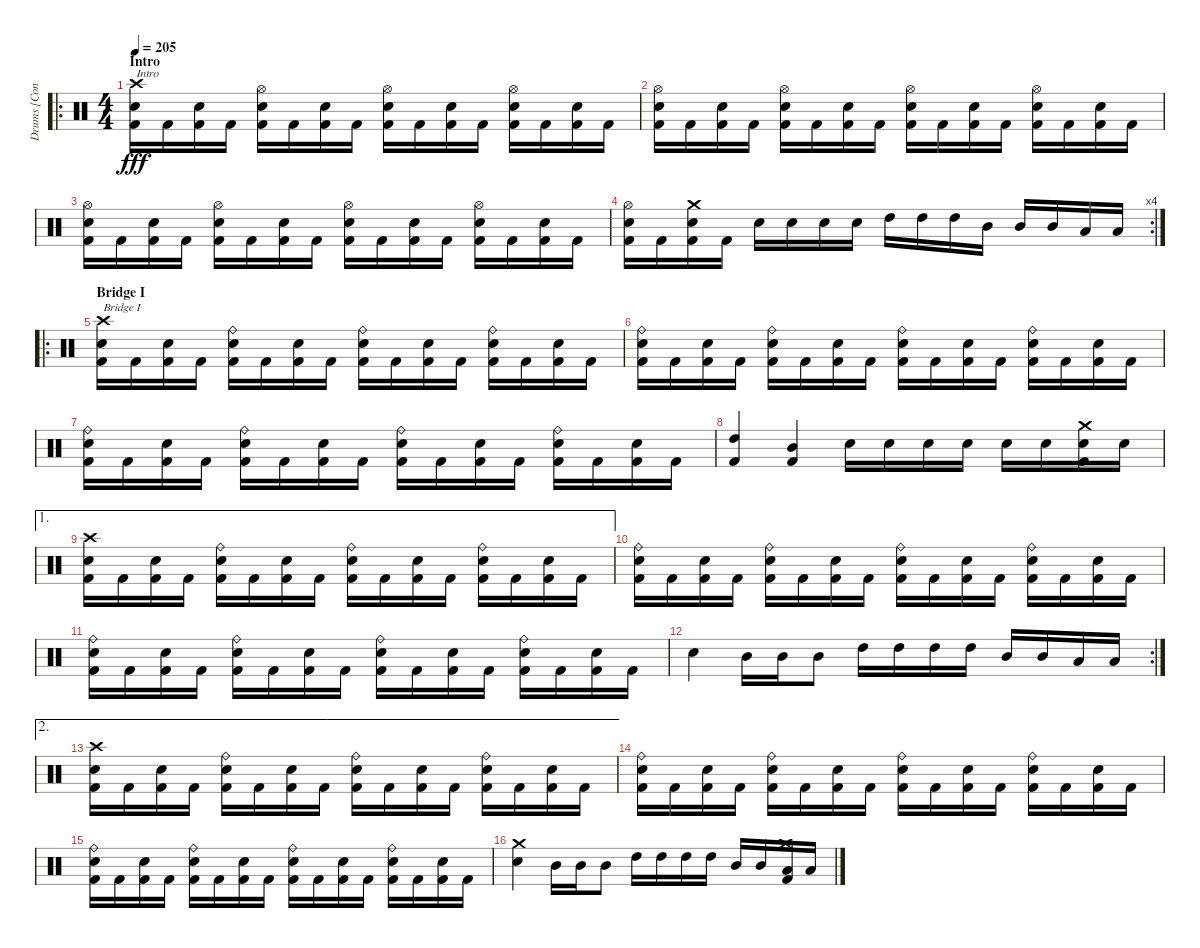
\track ("Drums [Conny Peterson]" "Drums [Con") {instrument percussion}
\staff {score}
\articulation defaults
\ro
\ts (4 4)
\section ("" "Intro")
\tempo 205
\clef neutral
\ks c
("Crash high (hit)" "Electric Snare (hit)" "Kick (hit) 2").16{txt "Intro" dy fff} "Kick (hit) 2".16 ("Electric Snare (hit)" "Kick (hit) 2").16 "Kick (hit) 2".16 ("Hi-Hat (open)" "Electric Snare (hit)" "Kick (hit) 2").16 "Kick (hit) 2".16 ("Electric Snare (hit)" "Kick (hit) 2").16 "Kick (hit) 2".16 ("Hi-Hat (open)" "Electric Snare (hit)" "Kick (hit) 2").16 "Kick (hit) 2".16 ("Electric Snare (hit)" "Kick (hit) 2").16 "Kick (hit) 2".16 ("Hi-Hat (open)" "Electric Snare (hit)" "Kick (hit) 2").16 "Kick (hit) 2".16 ("Electric Snare (hit)" "Kick (hit) 2").16 "Kick (hit) 2".16 |
("Hi-Hat (open)" "Electric Snare (hit)" "Kick (hit) 2").16 "Kick (hit) 2".16 ("Electric Snare (hit)" "Kick (hit) 2").16 "Kick (hit) 2".16 ("Hi-Hat (open)" "Electric Snare (hit)" "Kick (hit) 2").16 "Kick (hit) 2".16 ("Electric Snare (hit)" "Kick (hit) 2").16 "Kick (hit) 2".16 ("Hi-Hat (open)" "Electric Snare (hit)" "Kick (hit) 2").16 "Kick (hit) 2".16 ("Electric Snare (hit)" "Kick (hit) 2").16 "Kick (hit) 2".16 ("Hi-Hat (open)" "Electric Snare (hit)" "Kick (hit) 2").16 "Kick (hit) 2".16 ("Electric Snare (hit)" "Kick (hit) 2").16 "Kick (hit) 2".16 |
("Hi-Hat (open)" "Electric Snare (hit)" "Kick (hit) 2").16 "Kick (hit) 2".16 ("Electric Snare (hit)" "Kick (hit) 2").16 "Kick (hit) 2".16 ("Hi-Hat (open)" "Electric Snare (hit)" "Kick (hit) 2").16 "Kick (hit) 2".16 ("Electric Snare (hit)" "Kick (hit) 2").16 "Kick (hit) 2".16 ("Hi-Hat (open)" "Electric Snare (hit)" "Kick (hit) 2").16 "Kick (hit) 2".16 ("Electric Snare (hit)" "Kick (hit) 2").16 "Kick (hit) 2".16 ("Hi-Hat (open)" "Electric Snare (hit)" "Kick (hit) 2").16 "Kick (hit) 2".16 ("Electric Snare (hit)" "Kick (hit) 2").16 "Kick (hit) 2".16 |
\rc 4
("Hi-Hat (open)" "Electric Snare (hit)" "Kick (hit) 2").16 "Kick (hit) 2".16 ("Crash medium (hit)" "Electric Snare (hit)" "Kick (hit) 2").16 "Kick (hit) 2".16 "Electric Snare (hit)".16 "Electric Snare (hit)".16 "Electric Snare (hit)".16 "Electric Snare (hit)".16 "High Tom (hit)".16 "High Tom (hit)".16 "High Tom (hit)".16 "Mid Tom (hit)".16 "Mid Tom (hit)".16 "Mid Tom (hit)".16 "Low Tom (hit)".16 "Low Tom (hit)".16 |
\ro
\section ("" "Bridge I")
("Crash high (hit)" "Electric Snare (hit)" "Kick (hit) 2").16{txt "Bridge I"} "Kick (hit) 2".16 ("Electric Snare (hit)" "Kick (hit) 2").16 "Kick (hit) 2".16 ("Ride (bell)" "Electric Snare (hit)" "Kick (hit) 2").16 "Kick (hit) 2".16 ("Electric Snare (hit)" "Kick (hit) 2").16 "Kick (hit) 2".16 ("Ride (bell)" "Electric Snare (hit)" "Kick (hit) 2").16 "Kick (hit) 2".16 ("Electric Snare (hit)" "Kick (hit) 2").16 "Kick (hit) 2".16 ("Ride (bell)" "Electric Snare (hit)" "Kick (hit) 2").16 "Kick (hit) 2".16 ("Electric Snare (hit)" "Kick (hit) 2").16 "Kick (hit) 2".16 |
("Ride (bell)" "Electric Snare (hit)" "Kick (hit) 2").16 "Kick (hit) 2".16 ("Electric Snare (hit)" "Kick (hit) 2").16 "Kick (hit) 2".16 ("Ride (bell)" "Electric Snare (hit)" "Kick (hit) 2").16 "Kick (hit) 2".16 ("Electric Snare (hit)" "Kick (hit) 2").16 "Kick (hit) 2".16 ("Ride (bell)" "Electric Snare (hit)" "Kick (hit) 2").16 "Kick (hit) 2".16 ("Electric Snare (hit)" "Kick (hit) 2").16 "Kick (hit) 2".16 ("Ride (bell)" "Electric Snare (hit)" "Kick (hit) 2").16 "Kick (hit) 2".16 ("Electric Snare (hit)" "Kick (hit) 2").16 "Kick (hit) 2".16 |
("Ride (bell)" "Electric Snare (hit)" "Kick (hit) 2").16 "Kick (hit) 2".16 ("Electric Snare (hit)" "Kick (hit) 2").16 "Kick (hit) 2".16 ("Ride (bell)" "Electric Snare (hit)" "Kick (hit) 2").16 "Kick (hit) 2".16 ("Electric Snare (hit)" "Kick (hit) 2").16 "Kick (hit) 2".16 ("Ride (bell)" "Electric Snare (hit)" "Kick (hit) 2").16 "Kick (hit) 2".16 ("Electric Snare (hit)" "Kick (hit) 2").16 "Kick (hit) 2".16 ("Ride (bell)" "Electric Snare (hit)" "Kick (hit) 2").16 "Kick (hit) 2".16 ("Electric Snare (hit)" "Kick (hit) 2").16 "Kick (hit) 2".16 |
("High Tom (hit)" "Kick (hit) 2").4 ("Mid Tom (hit)" "Kick (hit) 2").4 "Electric Snare (hit)".16 "Electric Snare (hit)".16 "Electric Snare (hit)".16 "Electric Snare (hit)".16 "Electric Snare (hit)".16 "Electric Snare (hit)".16 ("Crash medium (hit)" "Electric Snare (hit)" "Kick (hit) 2").16 "Electric Snare (hit)".16 |
\ae 1
("Crash high (hit)" "Electric Snare (hit)" "Kick (hit) 2").16 "Kick (hit) 2".16 ("Electric Snare (hit)" "Kick (hit) 2").16 "Kick (hit) 2".16 ("Ride (bell)" "Electric Snare (hit)" "Kick (hit) 2").16 "Kick (hit) 2".16 ("Electric Snare (hit)" "Kick (hit) 2").16 "Kick (hit) 2".16 ("Ride (bell)" "Electric Snare (hit)" "Kick (hit) 2").16 "Kick (hit) 2".16 ("Electric Snare (hit)" "Kick (hit) 2").16 "Kick (hit) 2".16 ("Ride (bell)" "Electric Snare (hit)" "Kick (hit) 2").16 "Kick (hit) 2".16 ("Electric Snare (hit)" "Kick (hit) 2").16 "Kick (hit) 2".16 |
("Ride (bell)" "Electric Snare (hit)" "Kick (hit) 2").16 "Kick (hit) 2".16 ("Electric Snare (hit)" "Kick (hit) 2").16 "Kick (hit) 2".16 ("Ride (bell)" "Electric Snare (hit)" "Kick (hit) 2").16 "Kick (hit) 2".16 ("Electric Snare (hit)" "Kick (hit) 2").16 "Kick (hit) 2".16 ("Ride (bell)" "Electric Snare (hit)" "Kick (hit) 2").16 "Kick (hit) 2".16 ("Electric Snare (hit)" "Kick (hit) 2").16 "Kick (hit) 2".16 ("Ride (bell)" "Electric Snare (hit)" "Kick (hit) 2").16 "Kick (hit) 2".16 ("Electric Snare (hit)" "Kick (hit) 2").16 "Kick (hit) 2".16 |
("Ride (bell)" "Electric Snare (hit)" "Kick (hit) 2").16 "Kick (hit) 2".16 ("Electric Snare (hit)" "Kick (hit) 2").16 "Kick (hit) 2".16 ("Ride (bell)" "Electric Snare (hit)" "Kick (hit) 2").16 "Kick (hit) 2".16 ("Electric Snare (hit)" "Kick (hit) 2").16 "Kick (hit) 2".16 ("Ride (bell)" "Electric Snare (hit)" "Kick (hit) 2").16 "Kick (hit) 2".16 ("Electric Snare (hit)" "Kick (hit) 2").16 "Kick (hit) 2".16 ("Ride (bell)" "Electric Snare (hit)" "Kick (hit) 2").16 "Kick (hit) 2".16 ("Electric Snare (hit)" "Kick (hit) 2").16 "Kick (hit) 2".16 |
\rc 2 "Electric Snare (hit)".4 "Mid Tom (hit)".16 "Mid Tom (hit)".16 "Mid Tom (hit)".8 "High Tom (hit)".16 "High Tom (hit)".16 "High Tom (hit)".16 "High Tom (hit)".16 "Mid Tom (hit)".16 "Mid Tom (hit)".16 "Low Tom (hit)".16 "Low Tom (hit)".16
|
\ae 2
("Crash high (hit)" "Electric Snare (hit)" "Kick (hit) 2").16 "Kick (hit) 2".16 ("Electric Snare (hit)" "Kick (hit) 2").16 "Kick (hit) 2".16 ("Ride (bell)" "Electric Snare (hit)" "Kick (hit) 2").16 "Kick (hit) 2".16 ("Electric Snare (hit)" "Kick (hit) 2").16 "Kick (hit) 2".16 ("Ride (bell)" "Electric Snare (hit)" "Kick (hit) 2").16 "Kick (hit) 2".16 ("Electric Snare (hit)" "Kick (hit) 2").16 "Kick (hit) 2".16 ("Ride (bell)" "Electric Snare (hit)" "Kick (hit) 2").16 "Kick (hit) 2".16 ("Electric Snare (hit)" "Kick (hit) 2").16 "Kick (hit) 2".16 |
("Ride (bell)" "Electric Snare (hit)" "Kick (hit) 2").16 "Kick (hit) 2".16 ("Electric Snare (hit)" "Kick (hit) 2").16 "Kick (hit) 2".16 ("Ride (bell)" "Electric Snare (hit)" "Kick (hit) 2").16 "Kick (hit) 2".16 ("Electric Snare (hit)" "Kick (hit) 2").16 "Kick (hit) 2".16 ("Ride (bell)" "Electric Snare (hit)" "Kick (hit) 2").16 "Kick (hit) 2".16 ("Electric Snare (hit)" "Kick (hit) 2").16 "Kick (hit) 2".16 ("Ride (bell)" "Electric Snare (hit)" "Kick (hit) 2").16 "Kick (hit) 2".16 ("Electric Snare (hit)" "Kick (hit) 2").16 "Kick (hit) 2".16 |
("Ride (bell)" "Electric Snare (hit)" "Kick (hit) 2").16 "Kick (hit) 2".16 ("Electric Snare (hit)" "Kick (hit) 2").16 "Kick (hit) 2".16 ("Ride (bell)" "Electric Snare (hit)" "Kick (hit) 2").16 "Kick (hit) 2".16 ("Electric Snare (hit)" "Kick (hit) 2").16 "Kick (hit) 2".16 ("Ride (bell)" "Electric Snare (hit)" "Kick (hit) 2").16 "Kick (hit) 2".16 ("Electric Snare (hit)" "Kick (hit) 2").16 "Kick (hit) 2".16 ("Ride (bell)" "Electric Snare (hit)" "Kick (hit) 2").16 "Kick (hit) 2".16 ("Electric Snare (hit)" "Kick (hit) 2").16 "Kick (hit) 2".16 |
("Crash medium (hit)" "Electric Snare (hit)").4 "Mid Tom (hit)".16 "Mid Tom (hit)".16 "Mid Tom (hit)".8 "High Tom (hit)".16 "High Tom (hit)".16 "High Tom (hit)".16 "High Tom (hit)".16 "Mid Tom (hit)".16 "Mid Tom (hit)".16 ("Crash medium (hit)" "Low Tom (hit)" "Kick (hit) 2").16 "Low Tom (hit)".16
